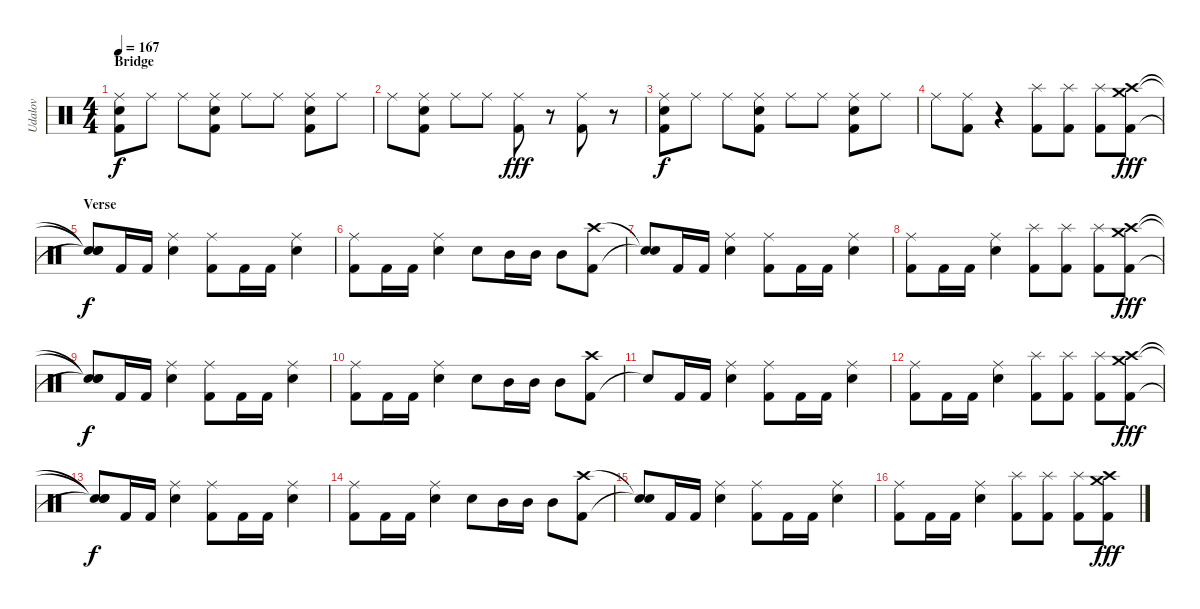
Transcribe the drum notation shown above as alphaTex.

\track ("Udalov" "Udalov") {instrument percussion}
\staff {score}
\articulation defaults
\ts (4 4)
\section ("" "Bridge")
\tempo 167
\clef neutral
\ks c
("Kick (hit) 2" "Electric Snare (hit)" "Ride (middle)").8{dy f} "Ride (middle)".8 "Ride (middle)".8 ("Kick (hit) 2" "Electric Snare (hit)" "Ride (middle)").8 "Ride (middle)".8 "Ride (middle)".8 ("Kick (hit) 2" "Electric Snare (hit)" "Ride (middle)").8 "Ride (middle)".8 |
"Ride (middle)".8 ("Electric Snare (hit)" "Kick (hit) 2" "Ride (middle)").8 "Ride (middle)".8 "Ride (middle)".8 ("Ride (middle)" "Kick (hit) 2").8{dy fff} r.8 ("Ride (middle)" "Kick (hit) 2").8 r.8 |
("Kick (hit) 2" "Electric Snare (hit)" "Ride (middle)").8{dy f} "Ride (middle)".8 "Ride (middle)".8 ("Kick (hit) 2" "Electric Snare (hit)" "Ride (middle)").8 "Ride (middle)".8 "Ride (middle)".8 ("Kick (hit) 2" "Electric Snare (hit)" "Ride (middle)").8 "Ride (middle)".8 |
"Ride (middle)".8 ("Kick (hit) 2" "Ride (middle)").8 r.4 ("Kick (hit) 2" "Splash (hit)").8 ("Kick (hit) 2" "Splash (hit)").8 ("Kick (hit) 2" "Splash (hit)").8 ("Kick (hit) 2" "Crash high (hit)" "Crash medium (hit)").8{dy fff} |
\section ("" "Verse")
("Snare (hit)"{t} "Snare (hit)"{t} "Snare (hit)"{t}).8{dy f} "Kick (hit) 2".16 "Kick (hit) 2".16 ("Snare (hit) 2" "Ride (middle)").4 ("Kick (hit) 2" "Ride (middle)").8 "Kick (hit) 2".16 "Kick (hit) 2".16 ("Snare (hit) 2" "Ride (middle)").4 |
("Kick (hit) 2" "Ride (middle)").8 "Kick (hit) 2".16 "Kick (hit) 2".16 ("Snare (hit) 2" "Ride (middle)").4 "Snare (hit) 2".8 "Mid Tom (hit)".16 "Mid Tom (hit)".16 "Mid Tom (hit)".8 ("Kick (hit) 2" "Crash high (hit)").8 |
("Snare (hit)"{t} "Snare (hit)"{t}).8 "Kick (hit) 2".16 "Kick (hit) 2".16 ("Snare (hit) 2" "Ride (middle)").4 ("Kick (hit) 2" "Ride (middle)").8 "Kick (hit) 2".16 "Kick (hit) 2".16 ("Snare (hit) 2" "Ride (middle)").4 |
("Kick (hit) 2" "Ride (middle)").8 "Kick (hit) 2".16 "Kick (hit) 2".16 ("Snare (hit) 2" "Ride (middle)").4 ("Kick (hit) 2" "Splash (hit)").8 ("Kick (hit) 2" "Splash (hit)").8 ("Kick (hit) 2" "Splash (hit)").8 ("Kick (hit) 2" "Crash high (hit)" "Crash medium (hit)").8{dy fff} |
("Snare (hit)"{t} "Snare (hit)"{t} "Snare (hit)"{t}).8{dy f} "Kick (hit) 2".16 "Kick (hit) 2".16 ("Snare (hit) 2" "Ride (middle)").4 ("Kick (hit) 2" "Ride (middle)").8 "Kick (hit) 2".16 "Kick (hit) 2".16 ("Snare (hit) 2" "Ride (middle)").4 |
("Kick (hit) 2" "Ride (middle)").8 "Kick (hit) 2".16 "Kick (hit) 2".16 ("Snare (hit) 2" "Ride (middle)").4 "Snare (hit) 2".8 "Mid Tom (hit)".16 "Mid Tom (hit)".16 "Mid Tom (hit)".8 ("Kick (hit) 2" "Crash high (hit)").8 |
"Snare (hit)"{t}.8 "Kick (hit) 2".16 "Kick (hit) 2".16 ("Snare (hit) 2" "Ride (middle)").4 ("Kick (hit) 2" "Ride (middle)").8 "Kick (hit) 2".16 "Kick (hit) 2".16 ("Snare (hit) 2" "Ride (middle)").4 |
("Kick (hit) 2" "Ride (middle)").8 "Kick (hit) 2".16 "Kick (hit) 2".16 ("Snare (hit) 2" "Ride (middle)").4 ("Kick (hit) 2" "Splash (hit)").8 ("Kick (hit) 2" "Splash (hit)").8 ("Kick (hit) 2" "Splash (hit)").8 ("Kick (hit) 2" "Crash high (hit)" "Crash medium (hit)").8{dy fff} |
("Snare (hit)"{t} "Snare (hit)"{t} "Snare (hit)"{t}).8{dy f} "Kick (hit) 2".16 "Kick (hit) 2".16 ("Snare (hit) 2" "Ride (middle)").4 ("Kick (hit) 2" "Ride (middle)").8 "Kick (hit) 2".16 "Kick (hit) 2".16 ("Snare (hit) 2" "Ride (middle)").4 |
("Kick (hit) 2" "Ride (middle)").8 "Kick (hit) 2".16 "Kick (hit) 2".16 ("Snare (hit) 2" "Ride (middle)").4 "Snare (hit) 2".8 "Mid Tom (hit)".16 "Mid Tom (hit)".16 "Mid Tom (hit)".8 ("Kick (hit) 2" "Crash high (hit)").8 |
("Snare (hit)"{t} "Snare (hit)"{t}).8 "Kick (hit) 2".16 "Kick (hit) 2".16 ("Snare (hit) 2" "Ride (middle)").4 ("Kick (hit) 2" "Ride (middle)").8 "Kick (hit) 2".16 "Kick (hit) 2".16 ("Snare (hit) 2" "Ride (middle)").4 |
("Kick (hit) 2" "Ride (middle)").8 "Kick (hit) 2".16 "Kick (hit) 2".16 ("Snare (hit) 2" "Ride (middle)").4 ("Kick (hit) 2" "Splash (hit)").8 ("Kick (hit) 2" "Splash (hit)").8 ("Kick (hit) 2" "Splash (hit)").8 ("Kick (hit) 2" "Crash high (hit)" "Crash medium (hit)").8{dy fff}
